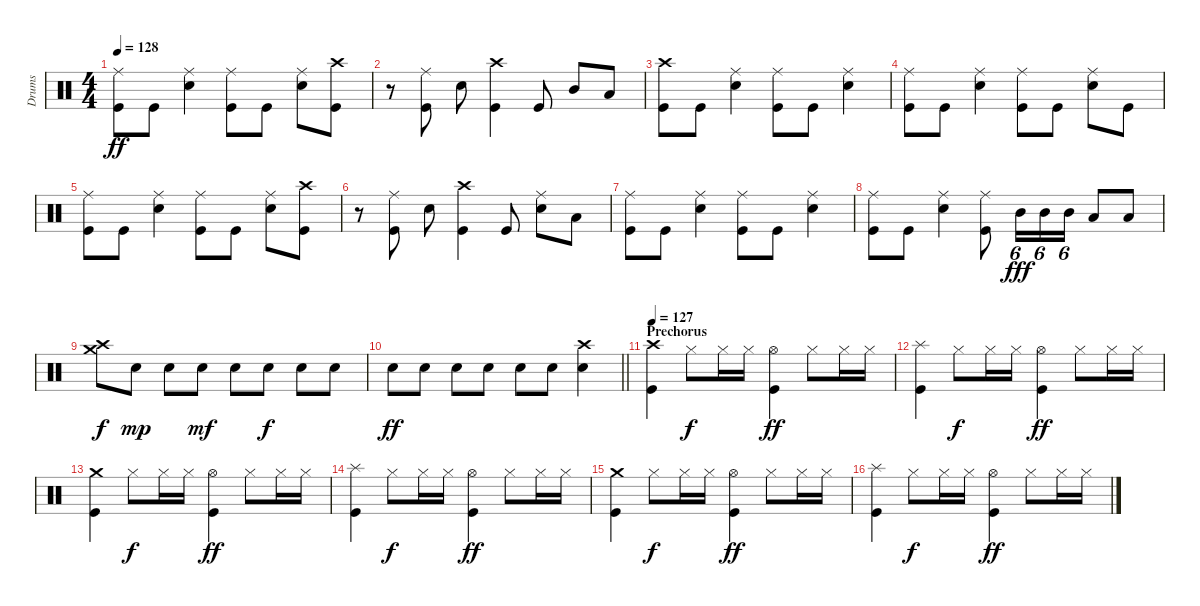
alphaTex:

\track ("Drums" "Drums") {instrument percussion}
\staff {score}
\articulation defaults
\ts (4 4)
\tempo 128
\clef neutral
\ks c
("Ride (middle)" "Kick (hit)").8{dy ff} "Kick (hit)".8 ("Ride (middle)" "Electric Snare (hit)").4 ("Ride (middle)" "Kick (hit)").8 "Kick (hit)".8 ("Ride (middle)" "Electric Snare (hit)").8 ("Crash high (hit)" "Kick (hit)").8 |
r.8 ("Ride (middle)" "Kick (hit)").8 "Electric Snare (hit)".8 ("Crash high (hit)" "Kick (hit)").4 "Kick (hit)".8 "Mid Tom (hit)".8 "Low Tom (hit)".8 |
("Crash high (hit)" "Kick (hit)").8 "Kick (hit)".8 ("Ride (middle)" "Electric Snare (hit)").4 ("Ride (middle)" "Kick (hit)").8 "Kick (hit)".8 ("Ride (middle)" "Electric Snare (hit)").4 |
("Ride (middle)" "Kick (hit)").8 "Kick (hit)".8 ("Ride (middle)" "Electric Snare (hit)").4 ("Ride (middle)" "Kick (hit)").8 "Kick (hit)".8 ("Ride (middle)" "Electric Snare (hit)").8 "Kick (hit)".8 |
("Ride (middle)" "Kick (hit)").8 "Kick (hit)".8 ("Ride (middle)" "Electric Snare (hit)").4 ("Ride (middle)" "Kick (hit)").8 "Kick (hit)".8 ("Ride (middle)" "Electric Snare (hit)").8 ("Crash high (hit)" "Kick (hit)").8 |
r.8 ("Ride (middle)" "Kick (hit)").8 "Electric Snare (hit)".8 ("Crash high (hit)" "Kick (hit)").4 "Kick (hit)".8 ("Ride (middle)" "Electric Snare (hit)").8 "Low Tom (hit)".8 |
("Ride (middle)" "Kick (hit)").8 "Kick (hit)".8 ("Ride (middle)" "Electric Snare (hit)").4 ("Ride (middle)" "Kick (hit)").8 "Kick (hit)".8 ("Ride (middle)" "Electric Snare (hit)").4 |
("Ride (middle)" "Kick (hit)").8 "Kick (hit)".8 ("Ride (middle)" "Electric Snare (hit)").4 ("Ride (middle)" "Kick (hit)").8 "Mid Tom (hit)".16{tu (6 4) dy fff} "Mid Tom (hit)".16{tu (6 4)} "Mid Tom (hit)".16{tu (6 4)} "Low Tom (hit)".8 "Low Tom (hit)".8 |
("Crash medium (hit)" "Crash high (hit)").8{dy f} "Electric Snare (hit)".8{dy mp} "Electric Snare (hit)".8 "Electric Snare (hit)".8{dy mf} "Electric Snare (hit)".8 "Electric Snare (hit)".8{dy f} "Electric Snare (hit)".8 "Electric Snare (hit)".8 |
\barLineRight lightlight "Electric Snare (hit)".8{dy ff} "Electric Snare (hit)".8 "Electric Snare (hit)".8 "Electric Snare (hit)".8 "Electric Snare (hit)".8 "Electric Snare (hit)".8
("Crash high (hit)" "Electric Snare (hit)").4 |
\section ("" "Prechorus")
\tempo 127
("Crash high (hit)" "Kick (hit)").4 "Hi-Hat (closed)".8{dy f} "Hi-Hat (closed)".16 "Hi-Hat (closed)".16 ("Hi-Hat (open)" "Kick (hit)").4{dy ff} "Hi-Hat (closed)".8 "Hi-Hat (closed)".16 "Hi-Hat (closed)".16 |
("Splash (hit)" "Kick (hit)").4 "Hi-Hat (closed)".8{dy f} "Hi-Hat (closed)".16 "Hi-Hat (closed)".16 ("Hi-Hat (open)" "Kick (hit)").4{dy ff} "Hi-Hat (closed)".8 "Hi-Hat (closed)".16 "Hi-Hat (closed)".16 |
("Crash medium (hit)" "Kick (hit)").4 "Hi-Hat (closed)".8{dy f} "Hi-Hat (closed)".16 "Hi-Hat (closed)".16 ("Hi-Hat (open)" "Kick (hit)").4{dy ff} "Hi-Hat (closed)".8 "Hi-Hat (closed)".16 "Hi-Hat (closed)".16 |
("Splash (hit)" "Kick (hit)").4 "Hi-Hat (closed)".8{dy f} "Hi-Hat (closed)".16 "Hi-Hat (closed)".16 ("Hi-Hat (open)" "Kick (hit)").4{dy ff} "Hi-Hat (closed)".8 "Hi-Hat (closed)".16 "Hi-Hat (closed)".16 |
("Crash medium (hit)" "Kick (hit)").4 "Hi-Hat (closed)".8{dy f} "Hi-Hat (closed)".16 "Hi-Hat (closed)".16 ("Hi-Hat (open)" "Kick (hit)").4{dy ff} "Hi-Hat (closed)".8 "Hi-Hat (closed)".16 "Hi-Hat (closed)".16 |
("Splash (hit)" "Kick (hit)").4 "Hi-Hat (closed)".8{dy f} "Hi-Hat (closed)".16 "Hi-Hat (closed)".16 ("Hi-Hat (open)" "Kick (hit)").4{dy ff} "Hi-Hat (closed)".8 "Hi-Hat (closed)".16 "Hi-Hat (closed)".16
